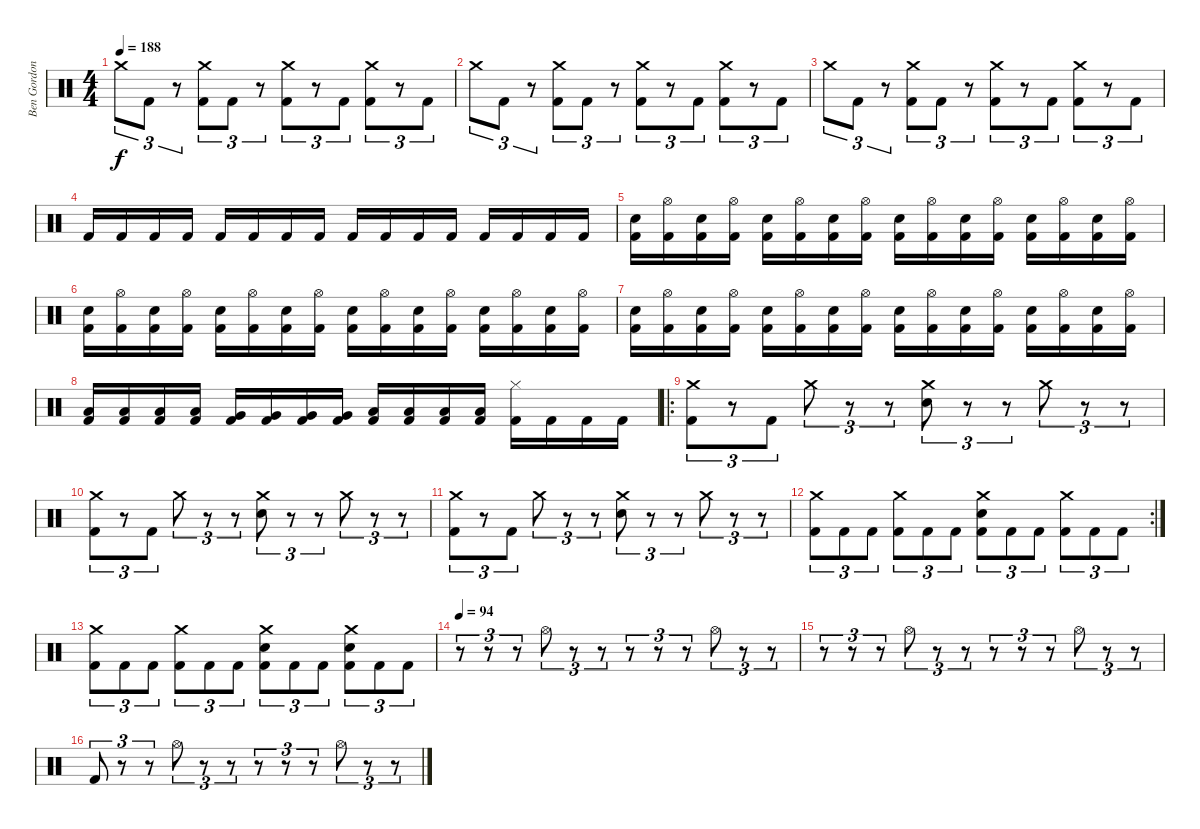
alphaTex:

\track ("Ben Gordon" "Ben Gordon") {instrument percussion}
\staff {score}
\articulation defaults
\ts (4 4)
\tempo 188
\clef neutral
\ks c "Crash medium (hit)".8{tu (3 2) dy f} "Kick (hit) 2".8{tu (3 2)}
r.8{tu (3 2)} ("Crash medium (hit)" "Kick (hit) 2").8{tu (3 2)} "Kick (hit) 2".8{tu (3 2)} r.8{tu (3 2)} ("Crash medium (hit)" "Kick (hit) 2").8{tu (3 2)} r.8{tu (3 2)} "Kick (hit) 2".8{tu (3 2)} ("Crash medium (hit)" "Kick (hit) 2").8{tu (3 2)} r.8{tu (3 2)} "Kick (hit) 2".8{tu (3 2)} |
"Crash medium (hit)".8{tu (3 2)} "Kick (hit) 2".8{tu (3 2)} r.8{tu (3 2)} ("Crash medium (hit)" "Kick (hit) 2").8{tu (3 2)} "Kick (hit) 2".8{tu (3 2)} r.8{tu (3 2)} ("Crash medium (hit)" "Kick (hit) 2").8{tu (3 2)} r.8{tu (3 2)} "Kick (hit) 2".8{tu (3 2)} ("Crash medium (hit)" "Kick (hit) 2").8{tu (3 2)} r.8{tu (3 2)} "Kick (hit) 2".8{tu (3 2)} |
"Crash medium (hit)".8{tu (3 2)} "Kick (hit) 2".8{tu (3 2)} r.8{tu (3 2)} ("Crash medium (hit)" "Kick (hit) 2").8{tu (3 2)} "Kick (hit) 2".8{tu (3 2)} r.8{tu (3 2)} ("Crash medium (hit)" "Kick (hit) 2").8{tu (3 2)} r.8{tu (3 2)} "Kick (hit) 2".8{tu (3 2)} ("Crash medium (hit)" "Kick (hit) 2").8{tu (3 2)} r.8{tu (3 2)} "Kick (hit) 2".8{tu (3 2)} |
"Kick (hit) 2".16 "Kick (hit) 2".16 "Kick (hit) 2".16 "Kick (hit) 2".16 "Kick (hit) 2".16 "Kick (hit) 2".16 "Kick (hit) 2".16 "Kick (hit) 2".16 "Kick (hit) 2".16 "Kick (hit) 2".16 "Kick (hit) 2".16 "Kick (hit) 2".16 "Kick (hit) 2".16 "Kick (hit) 2".16 "Kick (hit) 2".16 "Kick (hit) 2".16 |
("Electric Snare (hit)" "Kick (hit) 2").16 ("Hi-Hat (open)" "Kick (hit) 2").16 ("Electric Snare (hit)" "Kick (hit) 2").16 ("Hi-Hat (open)" "Kick (hit) 2").16 ("Electric Snare (hit)" "Kick (hit) 2").16 ("Hi-Hat (open)" "Kick (hit) 2").16 ("Electric Snare (hit)" "Kick (hit) 2").16 ("Hi-Hat (open)" "Kick (hit) 2").16 ("Electric Snare (hit)" "Kick (hit) 2").16 ("Hi-Hat (open)" "Kick (hit) 2").16 ("Electric Snare (hit)" "Kick (hit) 2").16 ("Hi-Hat (open)" "Kick (hit) 2").16 ("Electric Snare (hit)" "Kick (hit) 2").16 ("Hi-Hat (open)" "Kick (hit) 2").16 ("Electric Snare (hit)" "Kick (hit) 2").16 ("Hi-Hat (open)" "Kick (hit) 2").16 |
("Electric Snare (hit)" "Kick (hit) 2").16 ("Hi-Hat (open)" "Kick (hit) 2").16 ("Electric Snare (hit)" "Kick (hit) 2").16 ("Hi-Hat (open)" "Kick (hit) 2").16 ("Electric Snare (hit)" "Kick (hit) 2").16 ("Hi-Hat (open)" "Kick (hit) 2").16 ("Electric Snare (hit)" "Kick (hit) 2").16 ("Hi-Hat (open)" "Kick (hit) 2").16 ("Electric Snare (hit)" "Kick (hit) 2").16 ("Hi-Hat (open)" "Kick (hit) 2").16 ("Electric Snare (hit)" "Kick (hit) 2").16 ("Hi-Hat (open)" "Kick (hit) 2").16 ("Electric Snare (hit)" "Kick (hit) 2").16 ("Hi-Hat (open)" "Kick (hit) 2").16 ("Electric Snare (hit)" "Kick (hit) 2").16 ("Hi-Hat (open)" "Kick (hit) 2").16 |
("Electric Snare (hit)" "Kick (hit) 2").16 ("Hi-Hat (open)" "Kick (hit) 2").16 ("Electric Snare (hit)" "Kick (hit) 2").16 ("Hi-Hat (open)" "Kick (hit) 2").16 ("Electric Snare (hit)" "Kick (hit) 2").16 ("Hi-Hat (open)" "Kick (hit) 2").16 ("Electric Snare (hit)" "Kick (hit) 2").16 ("Hi-Hat (open)" "Kick (hit) 2").16 ("Electric Snare (hit)" "Kick (hit) 2").16 ("Hi-Hat (open)" "Kick (hit) 2").16 ("Electric Snare (hit)" "Kick (hit) 2").16 ("Hi-Hat (open)" "Kick (hit) 2").16 ("Electric Snare (hit)" "Kick (hit) 2").16 ("Hi-Hat (open)" "Kick (hit) 2").16 ("Electric Snare (hit)" "Kick (hit) 2").16 ("Hi-Hat (open)" "Kick (hit) 2").16 |
("Low Tom (hit)" "Kick (hit) 2").16 ("Low Tom (hit)" "Kick (hit) 2").16 ("Low Tom (hit)" "Kick (hit) 2").16 ("Low Tom (hit)" "Kick (hit) 2").16 ("Very Low Tom (hit)" "Kick (hit) 2").16 ("Very Low Tom (hit)" "Kick (hit) 2").16 ("Very Low Tom (hit)" "Kick (hit) 2").16 ("Very Low Tom (hit)" "Kick (hit) 2").16 ("Low Floor Tom (hit)" "Kick (hit) 2").16 ("Low Floor Tom (hit)" "Kick (hit) 2").16 ("Low Floor Tom (hit)" "Kick (hit) 2").16 ("Low Floor Tom (hit)" "Kick (hit) 2").16 ("Hi-Hat (closed)" "Kick (hit) 2").16 "Kick (hit) 2".16 "Kick (hit) 2".16 "Kick (hit) 2".16 |
\ro
("Crash medium (hit)" "Kick (hit) 2").8{tu (3 2)} r.8{tu (3 2)} "Kick (hit) 2".8{tu (3 2)} "Crash medium (hit)".8{tu (3 2)} r.8{tu (3 2)} r.8{tu (3 2)} ("Electric Snare (hit)" "Crash medium (hit)").8{tu (3 2)} r.8{tu (3 2)} r.8{tu (3 2)} "Crash medium (hit)".8{tu (3 2)} r.8{tu (3 2)} r.8{tu (3 2)} |
("Crash medium (hit)" "Kick (hit) 2").8{tu (3 2)} r.8{tu (3 2)} "Kick (hit) 2".8{tu (3 2)} "Crash medium (hit)".8{tu (3 2)} r.8{tu (3 2)} r.8{tu (3 2)} ("Electric Snare (hit)" "Crash medium (hit)").8{tu (3 2)} r.8{tu (3 2)} r.8{tu (3 2)} "Crash medium (hit)".8{tu (3 2)} r.8{tu (3 2)} r.8{tu (3 2)} |
("Crash medium (hit)" "Kick (hit) 2").8{tu (3 2)} r.8{tu (3 2)} "Kick (hit) 2".8{tu (3 2)} "Crash medium (hit)".8{tu (3 2)} r.8{tu (3 2)} r.8{tu (3 2)} ("Electric Snare (hit)" "Crash medium (hit)").8{tu (3 2)} r.8{tu (3 2)} r.8{tu (3 2)} "Crash medium (hit)".8{tu (3 2)} r.8{tu (3 2)} r.8{tu (3 2)} |
\rc 2
("Crash medium (hit)" "Kick (hit) 2").8{tu (3 2)} "Kick (hit) 2".8{tu (3 2)} "Kick (hit) 2".8{tu (3 2)} ("Crash medium (hit)" "Kick (hit) 2").8{tu (3 2)} "Kick (hit) 2".8{tu (3 2)} "Kick (hit) 2".8{tu (3 2)} ("Electric Snare (hit)" "Crash medium (hit)" "Kick (hit) 2").8{tu (3 2)} "Kick (hit) 2".8{tu (3 2)} "Kick (hit) 2".8{tu (3 2)} ("Crash medium (hit)" "Kick (hit) 2").8{tu (3 2)} "Kick (hit) 2".8{tu (3 2)} "Kick (hit) 2".8{tu (3 2)} |
("Crash medium (hit)" "Kick (hit) 2").8{tu (3 2)} "Kick (hit) 2".8{tu (3 2)} "Kick (hit) 2".8{tu (3 2)} ("Crash medium (hit)" "Kick (hit) 2").8{tu (3 2)} "Kick (hit) 2".8{tu (3 2)} "Kick (hit) 2".8{tu (3 2)} ("Electric Snare (hit)" "Crash medium (hit)" "Kick (hit) 2").8{tu (3 2)} "Kick (hit) 2".8{tu (3 2)} "Kick (hit) 2".8{tu (3 2)} ("Electric Snare (hit)" "Crash medium (hit)" "Kick (hit) 2").8{tu (3 2)} "Kick (hit) 2".8{tu (3 2)} "Kick (hit) 2".8{tu (3 2)} |
\tempo 94
r.8{tu (3 2)} r.8{tu (3 2)} r.8{tu (3 2)} "Hi-Hat (open)".8{tu (3 2)} r.8{tu (3 2)} r.8{tu (3 2)} r.8{tu (3 2)} r.8{tu (3 2)} r.8{tu (3 2)} "Hi-Hat (open)".8{tu (3 2)} r.8{tu (3 2)} r.8{tu (3 2)} |
r.8{tu (3 2)} r.8{tu (3 2)} r.8{tu (3 2)} "Hi-Hat (open)".8{tu (3 2)} r.8{tu (3 2)} r.8{tu (3 2)} r.8{tu (3 2)} r.8{tu (3 2)} r.8{tu (3 2)} "Hi-Hat (open)".8{tu (3 2)} r.8{tu (3 2)} r.8{tu (3 2)} |
"Kick (hit) 2".8{tu (3 2)} r.8{tu (3 2)} r.8{tu (3 2)} "Hi-Hat (open)".8{tu (3 2)} r.8{tu (3 2)} r.8{tu (3 2)} r.8{tu (3 2)} r.8{tu (3 2)} r.8{tu (3 2)} "Hi-Hat (open)".8{tu (3 2)} r.8{tu (3 2)} r.8{tu (3 2)}
